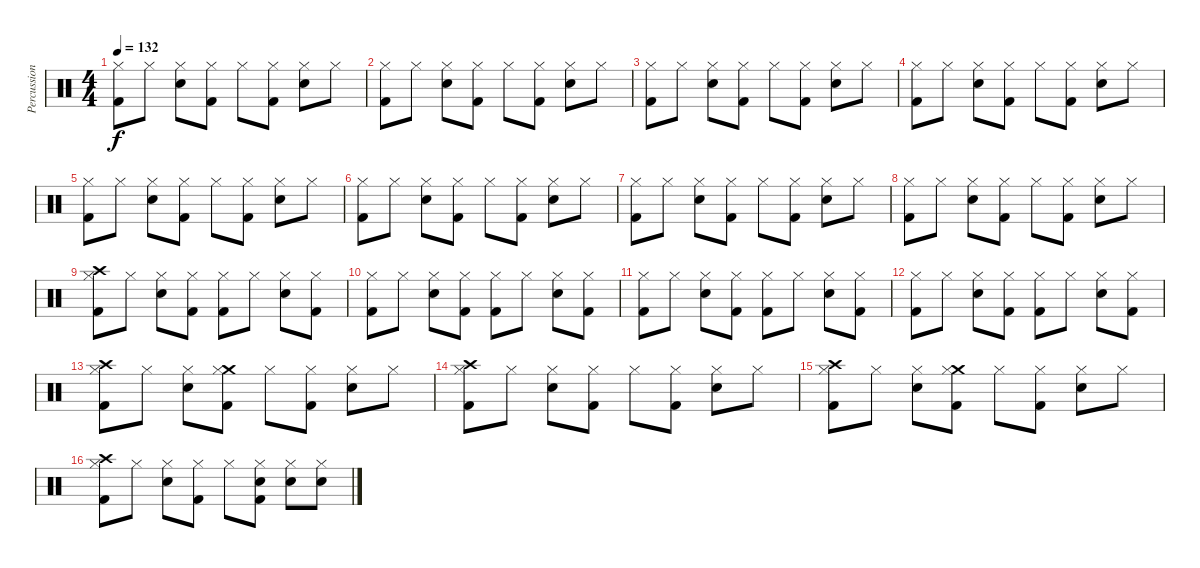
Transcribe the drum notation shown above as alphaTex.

\track ("Percussion" "Percussion") {instrument percussion}
\staff {score}
\articulation defaults
\ts (4 4)
\tempo 132
\clef neutral
\ks c
("Hi-Hat (closed)" "Kick (hit) 2").8{dy f} "Hi-Hat (closed)".8 ("Hi-Hat (closed)" "Snare (hit) 2").8 ("Hi-Hat (closed)" "Kick (hit) 2").8 "Hi-Hat (closed)".8 ("Hi-Hat (closed)" "Kick (hit) 2").8 ("Hi-Hat (closed)" "Snare (hit) 2").8 "Hi-Hat (closed)".8 |
("Hi-Hat (closed)" "Kick (hit) 2").8 "Hi-Hat (closed)".8 ("Hi-Hat (closed)" "Snare (hit) 2").8 ("Hi-Hat (closed)" "Kick (hit) 2").8 "Hi-Hat (closed)".8 ("Hi-Hat (closed)" "Kick (hit) 2").8 ("Hi-Hat (closed)" "Snare (hit) 2").8 "Hi-Hat (closed)".8 |
("Hi-Hat (closed)" "Kick (hit) 2").8 "Hi-Hat (closed)".8 ("Hi-Hat (closed)" "Snare (hit) 2").8 ("Hi-Hat (closed)" "Kick (hit) 2").8 "Hi-Hat (closed)".8 ("Hi-Hat (closed)" "Kick (hit) 2").8 ("Hi-Hat (closed)" "Snare (hit) 2").8 "Hi-Hat (closed)".8 |
("Hi-Hat (closed)" "Kick (hit) 2").8 "Hi-Hat (closed)".8 ("Hi-Hat (closed)" "Snare (hit) 2").8 ("Hi-Hat (closed)" "Kick (hit) 2").8 "Hi-Hat (closed)".8 ("Hi-Hat (closed)" "Kick (hit) 2").8 ("Hi-Hat (closed)" "Snare (hit) 2").8 "Hi-Hat (closed)".8 |
("Hi-Hat (closed)" "Kick (hit) 2").8 "Hi-Hat (closed)".8 ("Hi-Hat (closed)" "Snare (hit) 2").8 ("Hi-Hat (closed)" "Kick (hit) 2").8 "Hi-Hat (closed)".8 ("Hi-Hat (closed)" "Kick (hit) 2").8 ("Hi-Hat (closed)" "Snare (hit) 2").8 "Hi-Hat (closed)".8 |
("Hi-Hat (closed)" "Kick (hit) 2").8 "Hi-Hat (closed)".8 ("Hi-Hat (closed)" "Snare (hit) 2").8 ("Hi-Hat (closed)" "Kick (hit) 2").8 "Hi-Hat (closed)".8 ("Hi-Hat (closed)" "Kick (hit) 2").8 ("Hi-Hat (closed)" "Snare (hit) 2").8 "Hi-Hat (closed)".8 |
("Hi-Hat (closed)" "Kick (hit) 2").8 "Hi-Hat (closed)".8 ("Hi-Hat (closed)" "Snare (hit) 2").8 ("Hi-Hat (closed)" "Kick (hit) 2").8 "Hi-Hat (closed)".8 ("Hi-Hat (closed)" "Kick (hit) 2").8 ("Hi-Hat (closed)" "Snare (hit) 2").8 "Hi-Hat (closed)".8 |
("Hi-Hat (closed)" "Kick (hit) 2").8 "Hi-Hat (closed)".8 ("Hi-Hat (closed)" "Snare (hit) 2").8 ("Hi-Hat (closed)" "Kick (hit) 2").8 "Hi-Hat (closed)".8 ("Hi-Hat (closed)" "Kick (hit) 2").8 ("Hi-Hat (closed)" "Snare (hit) 2").8 "Hi-Hat (closed)".8 |
("Crash high (hit)" "Hi-Hat (closed)" "Kick (hit) 2").8 "Hi-Hat (closed)".8 ("Hi-Hat (closed)" "Snare (hit) 2").8 ("Hi-Hat (closed)" "Kick (hit) 2").8 ("Hi-Hat (closed)" "Kick (hit) 2").8 "Hi-Hat (closed)".8 ("Hi-Hat (closed)" "Snare (hit) 2").8 ("Hi-Hat (closed)" "Kick (hit) 2").8 |
("Hi-Hat (closed)" "Kick (hit) 2").8 "Hi-Hat (closed)".8 ("Hi-Hat (closed)" "Snare (hit) 2").8 ("Hi-Hat (closed)" "Kick (hit) 2").8 ("Hi-Hat (closed)" "Kick (hit) 2").8 "Hi-Hat (closed)".8 ("Hi-Hat (closed)" "Snare (hit) 2").8 ("Hi-Hat (closed)" "Kick (hit) 2").8 |
("Hi-Hat (closed)" "Kick (hit) 2").8 "Hi-Hat (closed)".8 ("Hi-Hat (closed)" "Snare (hit) 2").8 ("Hi-Hat (closed)" "Kick (hit) 2").8 ("Hi-Hat (closed)" "Kick (hit) 2").8 "Hi-Hat (closed)".8 ("Hi-Hat (closed)" "Snare (hit) 2").8 ("Hi-Hat (closed)" "Kick (hit) 2").8 |
("Hi-Hat (closed)" "Kick (hit) 2").8 "Hi-Hat (closed)".8 ("Hi-Hat (closed)" "Snare (hit) 2").8 ("Hi-Hat (closed)" "Kick (hit) 2").8 ("Hi-Hat (closed)" "Kick (hit) 2").8 "Hi-Hat (closed)".8 ("Hi-Hat (closed)" "Snare (hit) 2").8 ("Hi-Hat (closed)" "Kick (hit) 2").8 |
("Crash high (hit)" "Hi-Hat (closed)" "Kick (hit) 2").8 "Hi-Hat (closed)".8 ("Hi-Hat (closed)" "Snare (hit) 2").8 ("Crash medium (hit)" "Hi-Hat (closed)" "Kick (hit) 2").8 "Hi-Hat (closed)".8 ("Hi-Hat (closed)" "Kick (hit) 2").8 ("Hi-Hat (closed)" "Snare (hit) 2").8 "Hi-Hat (closed)".8 |
("Crash high (hit)" "Hi-Hat (closed)" "Kick (hit) 2").8 "Hi-Hat (closed)".8 ("Hi-Hat (closed)" "Snare (hit) 2").8 ("Hi-Hat (closed)" "Kick (hit) 2").8 "Hi-Hat (closed)".8 ("Hi-Hat (closed)" "Kick (hit) 2").8 ("Hi-Hat (closed)" "Snare (hit) 2").8 "Hi-Hat (closed)".8 |
("Crash high (hit)" "Hi-Hat (closed)" "Kick (hit) 2").8 "Hi-Hat (closed)".8 ("Hi-Hat (closed)" "Snare (hit) 2").8 ("Crash medium (hit)" "Hi-Hat (closed)" "Kick (hit) 2").8 "Hi-Hat (closed)".8 ("Hi-Hat (closed)" "Kick (hit) 2").8 ("Hi-Hat (closed)" "Snare (hit) 2").8 "Hi-Hat (closed)".8 |
("Crash high (hit)" "Hi-Hat (closed)" "Kick (hit) 2").8 "Hi-Hat (closed)".8 ("Hi-Hat (closed)" "Snare (hit) 2").8 ("Hi-Hat (closed)" "Kick (hit) 2").8 "Hi-Hat (closed)".8 ("Hi-Hat (closed)" "Snare (hit) 2" "Kick (hit) 2").8 ("Hi-Hat (closed)" "Snare (hit) 2").8 ("Hi-Hat (closed)" "Snare (hit) 2").8
